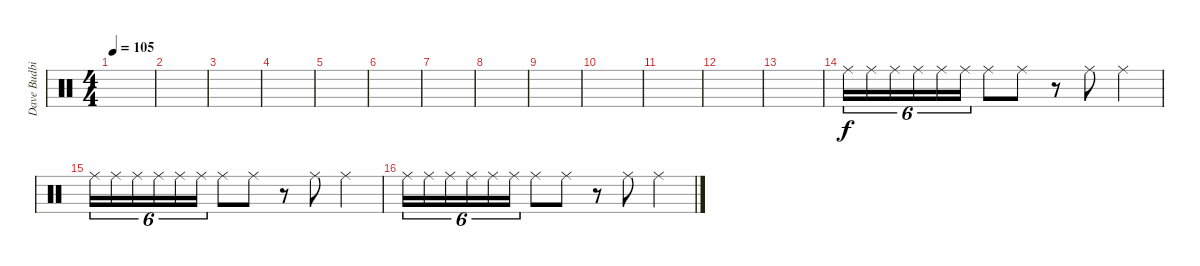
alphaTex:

\track ("Dave Budbill" "Dave Budbi") {instrument percussion}
\staff {score}
\articulation defaults
\ts (4 4)
\tempo 105
\clef neutral
\ks c
|
|
|
|
|
|
|
|
|
|
|
|
|
"Ride (middle)".16{tu (6 4)} "Ride (middle)".16{tu (6 4)} "Ride (middle)".16{tu (6 4)} "Ride (middle)".16{tu (6 4)} "Ride (middle)".16{tu (6 4)} "Ride (middle)".16{tu (6 4)} "Ride (middle)".8 "Ride (middle)".8 r.8 "Ride (middle)".8 "Ride (middle)".4 |
"Ride (middle)".16{tu (6 4)} "Ride (middle)".16{tu (6 4)} "Ride (middle)".16{tu (6 4)} "Ride (middle)".16{tu (6 4)} "Ride (middle)".16{tu (6 4)} "Ride (middle)".16{tu (6 4)} "Ride (middle)".8 "Ride (middle)".8 r.8 "Ride (middle)".8 "Ride (middle)".4 |
"Ride (middle)".16{tu (6 4)} "Ride (middle)".16{tu (6 4)} "Ride (middle)".16{tu (6 4)} "Ride (middle)".16{tu (6 4)} "Ride (middle)".16{tu (6 4)} "Ride (middle)".16{tu (6 4)} "Ride (middle)".8 "Ride (middle)".8 r.8 "Ride (middle)".8 "Ride (middle)".4
